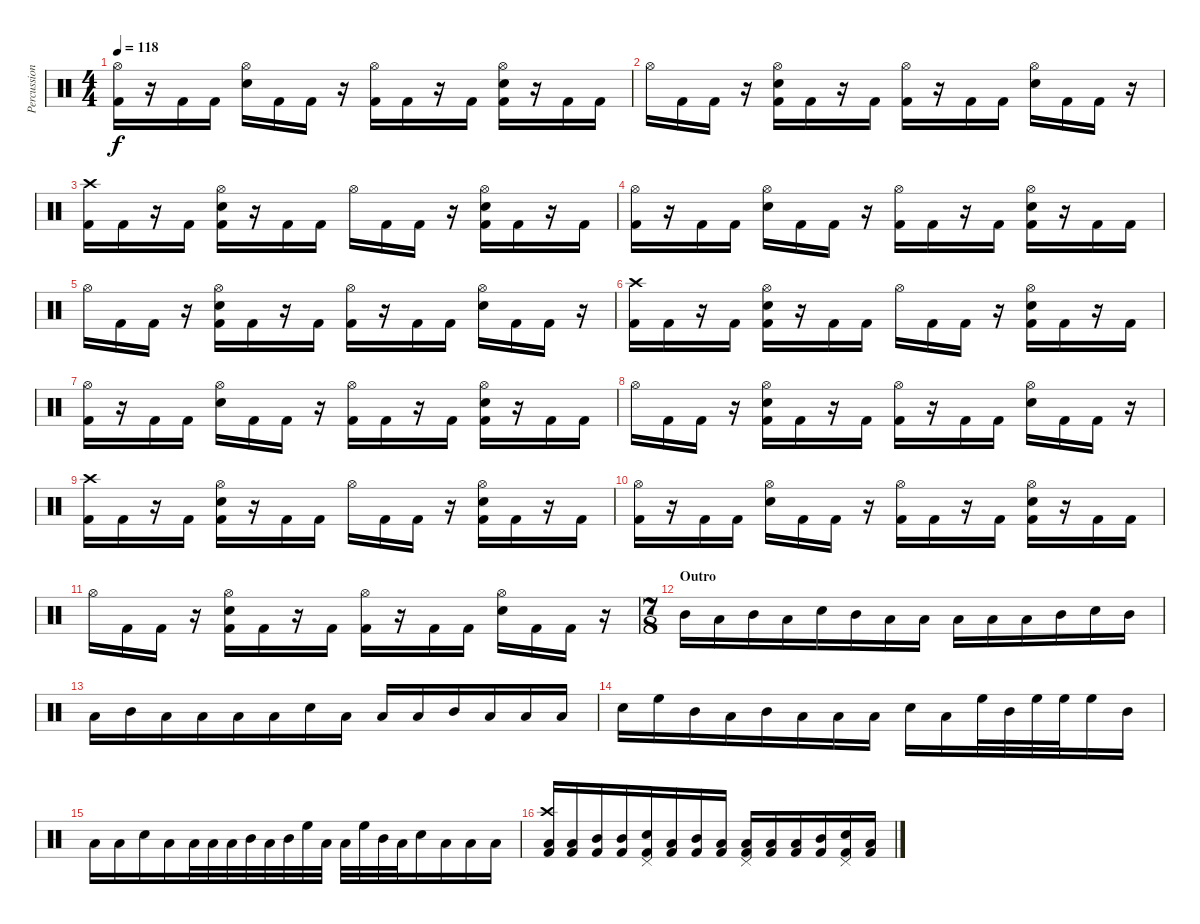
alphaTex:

\track ("Percussion" "Percussion") {instrument percussion}
\staff {score}
\articulation defaults
\ts (4 4)
\tempo 118
\clef neutral
\ks c
("Hi-Hat (open)" "Kick (hit) 2").16{dy f} r.16 "Kick (hit) 2".16 "Kick (hit) 2".16 ("Hi-Hat (open)" "Electric Snare (hit)").16 "Kick (hit) 2".16 "Kick (hit) 2".16 r.16 ("Hi-Hat (open)" "Kick (hit) 2").16 "Kick (hit) 2".16 r.16 "Kick (hit) 2".16 ("Hi-Hat (open)" "Electric Snare (hit)" "Kick (hit) 2").16 r.16 "Kick (hit) 2".16 "Kick (hit) 2".16 |
"Hi-Hat (open)".16 "Kick (hit) 2".16 "Kick (hit) 2".16 r.16 ("Hi-Hat (open)" "Electric Snare (hit)" "Kick (hit) 2").16 "Kick (hit) 2".16 r.16 "Kick (hit) 2".16 ("Hi-Hat (open)" "Kick (hit) 2").16 r.16 "Kick (hit) 2".16 "Kick (hit) 2".16 ("Hi-Hat (open)" "Electric Snare (hit)").16 "Kick (hit) 2".16 "Kick (hit) 2".16 r.16 |
("Crash high (hit)" "Kick (hit) 2").16 "Kick (hit) 2".16 r.16 "Kick (hit) 2".16 ("Hi-Hat (open)" "Electric Snare (hit)" "Kick (hit) 2").16 r.16 "Kick (hit) 2".16 "Kick (hit) 2".16 "Hi-Hat (open)".16 "Kick (hit) 2".16 "Kick (hit) 2".16 r.16 ("Hi-Hat (open)" "Electric Snare (hit)" "Kick (hit) 2").16 "Kick (hit) 2".16 r.16 "Kick (hit) 2".16 |
("Hi-Hat (open)" "Kick (hit) 2").16 r.16 "Kick (hit) 2".16 "Kick (hit) 2".16 ("Hi-Hat (open)" "Electric Snare (hit)").16 "Kick (hit) 2".16 "Kick (hit) 2".16 r.16 ("Hi-Hat (open)" "Kick (hit) 2").16 "Kick (hit) 2".16 r.16 "Kick (hit) 2".16 ("Hi-Hat (open)" "Electric Snare (hit)" "Kick (hit) 2").16 r.16 "Kick (hit) 2".16 "Kick (hit) 2".16 |
"Hi-Hat (open)".16 "Kick (hit) 2".16 "Kick (hit) 2".16 r.16 ("Hi-Hat (open)" "Electric Snare (hit)" "Kick (hit) 2").16 "Kick (hit) 2".16 r.16 "Kick (hit) 2".16 ("Hi-Hat (open)" "Kick (hit) 2").16 r.16 "Kick (hit) 2".16 "Kick (hit) 2".16 ("Hi-Hat (open)" "Electric Snare (hit)").16 "Kick (hit) 2".16 "Kick (hit) 2".16 r.16 |
("Crash high (hit)" "Kick (hit) 2").16 "Kick (hit) 2".16 r.16 "Kick (hit) 2".16 ("Hi-Hat (open)" "Electric Snare (hit)" "Kick (hit) 2").16 r.16 "Kick (hit) 2".16 "Kick (hit) 2".16 "Hi-Hat (open)".16 "Kick (hit) 2".16 "Kick (hit) 2".16 r.16 ("Hi-Hat (open)" "Electric Snare (hit)" "Kick (hit) 2").16 "Kick (hit) 2".16 r.16 "Kick (hit) 2".16 |
("Hi-Hat (open)" "Kick (hit) 2").16 r.16 "Kick (hit) 2".16 "Kick (hit) 2".16 ("Hi-Hat (open)" "Electric Snare (hit)").16 "Kick (hit) 2".16 "Kick (hit) 2".16 r.16 ("Hi-Hat (open)" "Kick (hit) 2").16 "Kick (hit) 2".16 r.16 "Kick (hit) 2".16 ("Hi-Hat (open)" "Electric Snare (hit)" "Kick (hit) 2").16 r.16 "Kick (hit) 2".16 "Kick (hit) 2".16 |
"Hi-Hat (open)".16 "Kick (hit) 2".16 "Kick (hit) 2".16 r.16 ("Hi-Hat (open)" "Electric Snare (hit)" "Kick (hit) 2").16 "Kick (hit) 2".16 r.16 "Kick (hit) 2".16 ("Hi-Hat (open)" "Kick (hit) 2").16 r.16 "Kick (hit) 2".16 "Kick (hit) 2".16 ("Hi-Hat (open)" "Electric Snare (hit)").16 "Kick (hit) 2".16 "Kick (hit) 2".16 r.16 |
("Crash high (hit)" "Kick (hit) 2").16 "Kick (hit) 2".16 r.16 "Kick (hit) 2".16 ("Hi-Hat (open)" "Electric Snare (hit)" "Kick (hit) 2").16 r.16 "Kick (hit) 2".16 "Kick (hit) 2".16 "Hi-Hat (open)".16 "Kick (hit) 2".16 "Kick (hit) 2".16 r.16 ("Hi-Hat (open)" "Electric Snare (hit)" "Kick (hit) 2").16 "Kick (hit) 2".16 r.16 "Kick (hit) 2".16 |
("Hi-Hat (open)" "Kick (hit) 2").16 r.16 "Kick (hit) 2".16 "Kick (hit) 2".16 ("Hi-Hat (open)" "Electric Snare (hit)").16 "Kick (hit) 2".16 "Kick (hit) 2".16 r.16 ("Hi-Hat (open)" "Kick (hit) 2").16 "Kick (hit) 2".16 r.16 "Kick (hit) 2".16 ("Hi-Hat (open)" "Electric Snare (hit)" "Kick (hit) 2").16 r.16 "Kick (hit) 2".16 "Kick (hit) 2".16 |
"Hi-Hat (open)".16 "Kick (hit) 2".16 "Kick (hit) 2".16 r.16 ("Hi-Hat (open)" "Electric Snare (hit)" "Kick (hit) 2").16 "Kick (hit) 2".16 r.16 "Kick (hit) 2".16 ("Hi-Hat (open)" "Kick (hit) 2").16 r.16 "Kick (hit) 2".16 "Kick (hit) 2".16 ("Hi-Hat (open)" "Electric Snare (hit)").16 "Kick (hit) 2".16 "Kick (hit) 2".16 r.16 |
\ts (7 8)
\section ("" "Outro")
"Mid Tom (hit)".16 "Low Tom (hit)".16 "Mid Tom (hit)".16 "Low Tom (hit)".16 "Electric Snare (hit)".16 "Mid Tom (hit)".16 "Low Tom (hit)".16 "Low Floor Tom (hit)".16 "Low Tom (hit)".16 "Low Floor Tom (hit)".16 "Low Tom (hit)".16 "Mid Tom (hit)".16 "Electric Snare (hit)".16 "Mid Tom (hit)".16 |
"Low Tom (hit)".16 "Mid Tom (hit)".16 "Low Tom (hit)".16 "Low Floor Tom (hit)".16 "Low Tom (hit)".16 "Low Floor Tom (hit)".16 "Electric Snare (hit)".16 "Low Tom (hit)".16 "Low Floor Tom (hit)".16 "Low Tom (hit)".16 "Mid Tom (hit)".16 "Low Tom (hit)".16 "Low Floor Tom (hit)".16 "Low Tom (hit)".16 |
"Electric Snare (hit)".16 "High Floor Tom (hit)".16 "Mid Tom (hit)".16 "Low Tom (hit)".16 "Mid Tom (hit)".16 "Low Tom (hit)".16 "Low Floor Tom (hit)".16 "Low Tom (hit)".16 "Electric Snare (hit)".16 "Low Floor Tom (hit)".16 "High Floor Tom (hit)".32 "Mid Tom (hit)".32 "High Floor Tom (hit)".32 "High Floor Tom (hit)".32 "High Floor Tom (hit)".16 "Mid Tom (hit)".16 |
"Low Tom (hit)".16 "Low Tom (hit)".16 "Electric Snare (hit)".16 "Low Tom (hit)".16 "Low Tom (hit)".32 "Low Floor Tom (hit)".32 "Low Tom (hit)".32 "Mid Tom (hit)".32 "Low Tom (hit)".32 "Mid Tom (hit)".32 "High Floor Tom (hit)".32 "Low Tom (hit)".32 "Low Floor Tom (hit)".32 "High Floor Tom (hit)".32 "Mid Tom (hit)".32 "Low Tom (hit)".32 "Electric Snare (hit)".16 "Low Tom (hit)".16 "Low Floor Tom (hit)".16 "Low Tom (hit)".16 |
("Crash high (hit)" "Low Floor Tom (hit)" "Kick (hit) 2").16 ("Low Tom (hit)" "Kick (hit) 2").16 ("Mid Tom (hit)" "Kick (hit) 2").16 ("Mid Tom (hit)" "Kick (hit) 2").16 ("Pedal Hi-Hat (hit)" "Electric Snare (hit)" "Kick (hit) 2").16 ("Low Tom (hit)" "Kick (hit) 2").16 ("Mid Tom (hit)" "Kick (hit) 2").16 ("Low Tom (hit)" "Kick (hit) 2").16 ("Pedal Hi-Hat (hit)" "Low Floor Tom (hit)" "Kick (hit) 2").16 ("Low Tom (hit)" "Kick (hit) 2").16 ("Low Floor Tom (hit)" "Kick (hit) 2").16 ("Mid Tom (hit)" "Kick (hit) 2").16 ("Pedal Hi-Hat (hit)" "Electric Snare (hit)" "Kick (hit) 2").16 ("Low Tom (hit)" "Kick (hit) 2").16
